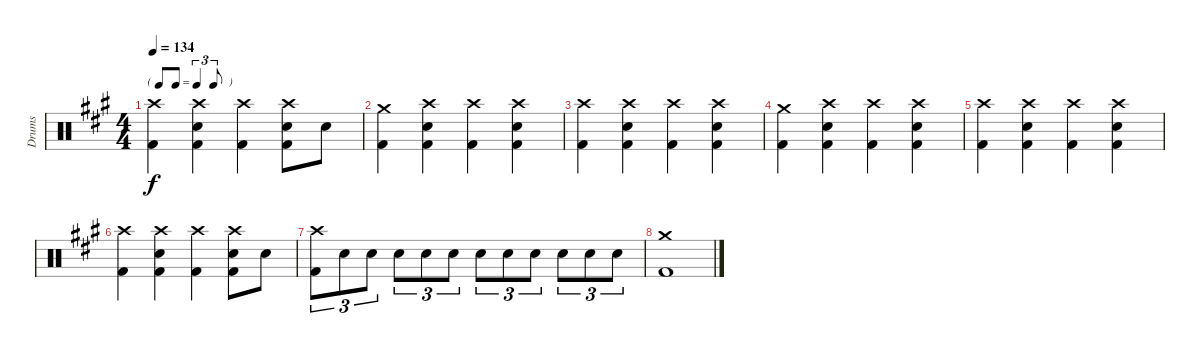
\track ("Drums" "Drums") {instrument percussion}
\staff {score}
\articulation defaults
\ts (4 4)
\tf triplet8th
\tempo 134
\clef neutral
\ks f#minor
("Crash high (hit)" "Kick (hit) 2").4{dy f} ("Crash high (hit)" "Electric Snare (hit)" "Kick (hit) 2").4 ("Crash high (hit)" "Kick (hit) 2").4 ("Crash high (hit)" "Electric Snare (hit)" "Kick (hit) 2").8 "Electric Snare (hit)".8 |
("Crash medium (hit)" "Kick (hit) 2").4 ("Crash high (hit)" "Electric Snare (hit)" "Kick (hit) 2").4 ("Crash high (hit)" "Kick (hit) 2").4 ("Crash high (hit)" "Electric Snare (hit)" "Kick (hit) 2").4 |
("Crash high (hit)" "Kick (hit) 2").4 ("Crash high (hit)" "Electric Snare (hit)" "Kick (hit) 2").4 ("Crash high (hit)" "Kick (hit) 2").4 ("Crash high (hit)" "Electric Snare (hit)" "Kick (hit) 2").4 |
("Crash medium (hit)" "Kick (hit) 2").4 ("Crash high (hit)" "Electric Snare (hit)" "Kick (hit) 2").4 ("Crash high (hit)" "Kick (hit) 2").4 ("Crash high (hit)" "Electric Snare (hit)" "Kick (hit) 2").4 |
("Crash high (hit)" "Kick (hit) 2").4 ("Crash high (hit)" "Electric Snare (hit)" "Kick (hit) 2").4 ("Crash high (hit)" "Kick (hit) 2").4 ("Crash high (hit)" "Electric Snare (hit)" "Kick (hit) 2").4 |
("Crash high (hit)" "Kick (hit) 2").4 ("Crash high (hit)" "Electric Snare (hit)" "Kick (hit) 2").4 ("Crash high (hit)" "Kick (hit) 2").4 ("Crash high (hit)" "Electric Snare (hit)" "Kick (hit) 2").8 "Electric Snare (hit)".8 |
("Crash high (hit)" "Kick (hit) 2").8{tu (3 2)} "Electric Snare (hit)".8{tu (3 2)} "Electric Snare (hit)".8{tu (3 2)} "Electric Snare (hit)".8{tu (3 2)} "Electric Snare (hit)".8{tu (3 2)} "Electric Snare (hit)".8{tu (3 2)} "Electric Snare (hit)".8{tu (3 2)} "Electric Snare (hit)".8{tu (3 2)} "Electric Snare (hit)".8{tu (3 2)} "Electric Snare (hit)".8{tu (3 2)} "Electric Snare (hit)".8{tu (3 2)} "Electric Snare (hit)".8{tu (3 2)} |
("Crash medium (hit)" "Kick (hit) 2").1
